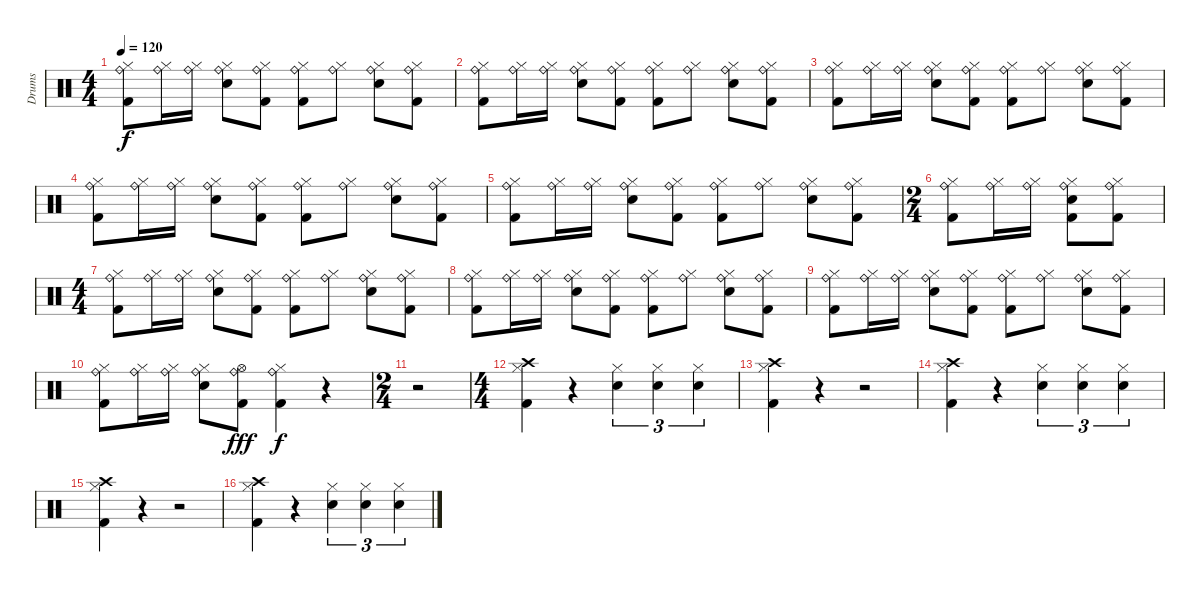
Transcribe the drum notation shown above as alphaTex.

\track ("Drums" "Drums") {instrument percussion}
\staff {score}
\articulation defaults
\ts (4 4)
\tempo 120
\clef neutral
\ks c
("Ride (bell)" "Hi-Hat (closed)" "Kick (hit) 2").8{dy f} ("Ride (bell)" "Hi-Hat (closed)").16 ("Ride (bell)" "Hi-Hat (closed)").16 ("Ride (bell)" "Hi-Hat (closed)" "Snare (hit) 2").8 ("Ride (bell)" "Hi-Hat (closed)" "Kick (hit) 2").8 ("Ride (bell)" "Hi-Hat (closed)" "Kick (hit) 2").8 ("Ride (bell)" "Hi-Hat (closed)").8 ("Ride (bell)" "Hi-Hat (closed)" "Snare (hit) 2").8 ("Ride (bell)" "Hi-Hat (closed)" "Kick (hit) 2").8 |
("Ride (bell)" "Hi-Hat (closed)" "Kick (hit) 2").8 ("Ride (bell)" "Hi-Hat (closed)").16 ("Ride (bell)" "Hi-Hat (closed)").16 ("Ride (bell)" "Hi-Hat (closed)" "Snare (hit) 2").8 ("Ride (bell)" "Hi-Hat (closed)" "Kick (hit) 2").8 ("Ride (bell)" "Hi-Hat (closed)" "Kick (hit) 2").8 ("Ride (bell)" "Hi-Hat (closed)").8 ("Ride (bell)" "Hi-Hat (closed)" "Snare (hit) 2").8 ("Ride (bell)" "Hi-Hat (closed)" "Kick (hit) 2").8 |
("Ride (bell)" "Hi-Hat (closed)" "Kick (hit) 2").8 ("Ride (bell)" "Hi-Hat (closed)").16 ("Ride (bell)" "Hi-Hat (closed)").16 ("Ride (bell)" "Hi-Hat (closed)" "Snare (hit) 2").8 ("Ride (bell)" "Hi-Hat (closed)" "Kick (hit) 2").8 ("Ride (bell)" "Hi-Hat (closed)" "Kick (hit) 2").8 ("Ride (bell)" "Hi-Hat (closed)").8 ("Ride (bell)" "Hi-Hat (closed)" "Snare (hit) 2").8 ("Ride (bell)" "Hi-Hat (closed)" "Kick (hit) 2").8 |
("Ride (bell)" "Hi-Hat (closed)" "Kick (hit) 2").8 ("Ride (bell)" "Hi-Hat (closed)").16 ("Ride (bell)" "Hi-Hat (closed)").16 ("Ride (bell)" "Hi-Hat (closed)" "Snare (hit) 2").8 ("Ride (bell)" "Hi-Hat (closed)" "Kick (hit) 2").8 ("Ride (bell)" "Hi-Hat (closed)" "Kick (hit) 2").8 ("Ride (bell)" "Hi-Hat (closed)").8 ("Ride (bell)" "Hi-Hat (closed)" "Snare (hit) 2").8 ("Ride (bell)" "Hi-Hat (closed)" "Kick (hit) 2").8 |
("Ride (bell)" "Hi-Hat (closed)" "Kick (hit) 2").8 ("Ride (bell)" "Hi-Hat (closed)").16 ("Ride (bell)" "Hi-Hat (closed)").16 ("Ride (bell)" "Hi-Hat (closed)" "Snare (hit) 2").8 ("Ride (bell)" "Hi-Hat (closed)" "Kick (hit) 2").8 ("Ride (bell)" "Hi-Hat (closed)" "Kick (hit) 2").8 ("Ride (bell)" "Hi-Hat (closed)").8 ("Ride (bell)" "Hi-Hat (closed)" "Snare (hit) 2").8 ("Ride (bell)" "Hi-Hat (closed)" "Kick (hit) 2").8 |
\ts (2 4)
("Ride (bell)" "Hi-Hat (closed)" "Kick (hit) 2").8 ("Ride (bell)" "Hi-Hat (closed)").16 ("Ride (bell)" "Hi-Hat (closed)").16 ("Ride (bell)" "Hi-Hat (closed)" "Snare (hit) 2" "Kick (hit) 2").8 ("Ride (bell)" "Hi-Hat (closed)" "Kick (hit) 2").8 |
\ts (4 4)
("Ride (bell)" "Hi-Hat (closed)" "Kick (hit) 2").8 ("Ride (bell)" "Hi-Hat (closed)").16 ("Ride (bell)" "Hi-Hat (closed)").16 ("Ride (bell)" "Hi-Hat (closed)" "Snare (hit) 2").8 ("Ride (bell)" "Hi-Hat (closed)" "Kick (hit) 2").8 ("Ride (bell)" "Hi-Hat (closed)" "Kick (hit) 2").8 ("Ride (bell)" "Hi-Hat (closed)").8 ("Ride (bell)" "Hi-Hat (closed)" "Snare (hit) 2").8 ("Ride (bell)" "Hi-Hat (closed)" "Kick (hit) 2").8 |
("Ride (bell)" "Hi-Hat (closed)" "Kick (hit) 2").8 ("Ride (bell)" "Hi-Hat (closed)").16 ("Ride (bell)" "Hi-Hat (closed)").16 ("Ride (bell)" "Hi-Hat (closed)" "Snare (hit) 2").8 ("Ride (bell)" "Hi-Hat (closed)" "Kick (hit) 2").8 ("Ride (bell)" "Hi-Hat (closed)" "Kick (hit) 2").8 ("Ride (bell)" "Hi-Hat (closed)").8 ("Ride (bell)" "Hi-Hat (closed)" "Snare (hit) 2").8 ("Ride (bell)" "Hi-Hat (closed)" "Kick (hit) 2").8 |
("Ride (bell)" "Hi-Hat (closed)" "Kick (hit) 2").8 ("Ride (bell)" "Hi-Hat (closed)").16 ("Ride (bell)" "Hi-Hat (closed)").16 ("Ride (bell)" "Hi-Hat (closed)" "Snare (hit) 2").8 ("Ride (bell)" "Hi-Hat (closed)" "Kick (hit) 2").8 ("Ride (bell)" "Hi-Hat (closed)" "Kick (hit) 2").8 ("Ride (bell)" "Hi-Hat (closed)").8 ("Ride (bell)" "Hi-Hat (closed)" "Snare (hit) 2").8 ("Ride (bell)" "Hi-Hat (closed)" "Kick (hit) 2").8 |
("Ride (bell)" "Hi-Hat (closed)" "Kick (hit) 2").8 ("Ride (bell)" "Hi-Hat (closed)").16 ("Ride (bell)" "Hi-Hat (closed)").16 ("Ride (bell)" "Hi-Hat (closed)" "Snare (hit) 2").8 ("Ride (bell)" "Hi-Hat (open)" "Kick (hit) 2").8{dy fff} ("Ride (bell)" "Hi-Hat (closed)" "Kick (hit) 2").4{dy f} r.4 |
\ts (2 4)
r.2 |
\ts (4 4)
("Crash high (hit)" "Hi-Hat (closed)" "Kick (hit) 2").4 r.4 ("Hi-Hat (closed)" "Snare (hit) 2").4{tu (3 2)} ("Hi-Hat (closed)" "Snare (hit) 2").4{tu (3 2)} ("Hi-Hat (closed)" "Snare (hit) 2").4{tu (3 2)} |
("Crash high (hit)" "Hi-Hat (closed)" "Kick (hit) 2").4 r.4 r.2 |
("Crash high (hit)" "Hi-Hat (closed)" "Kick (hit) 2").4 r.4 ("Hi-Hat (closed)" "Snare (hit) 2").4{tu (3 2)} ("Hi-Hat (closed)" "Snare (hit) 2").4{tu (3 2)} ("Hi-Hat (closed)" "Snare (hit) 2").4{tu (3 2)} |
("Crash high (hit)" "Hi-Hat (closed)" "Kick (hit) 2").4 r.4 r.2 |
("Crash high (hit)" "Hi-Hat (closed)" "Kick (hit) 2").4 r.4 ("Hi-Hat (closed)" "Snare (hit) 2").4{tu (3 2)} ("Hi-Hat (closed)" "Snare (hit) 2").4{tu (3 2)} ("Hi-Hat (closed)" "Snare (hit) 2").4{tu (3 2)}
